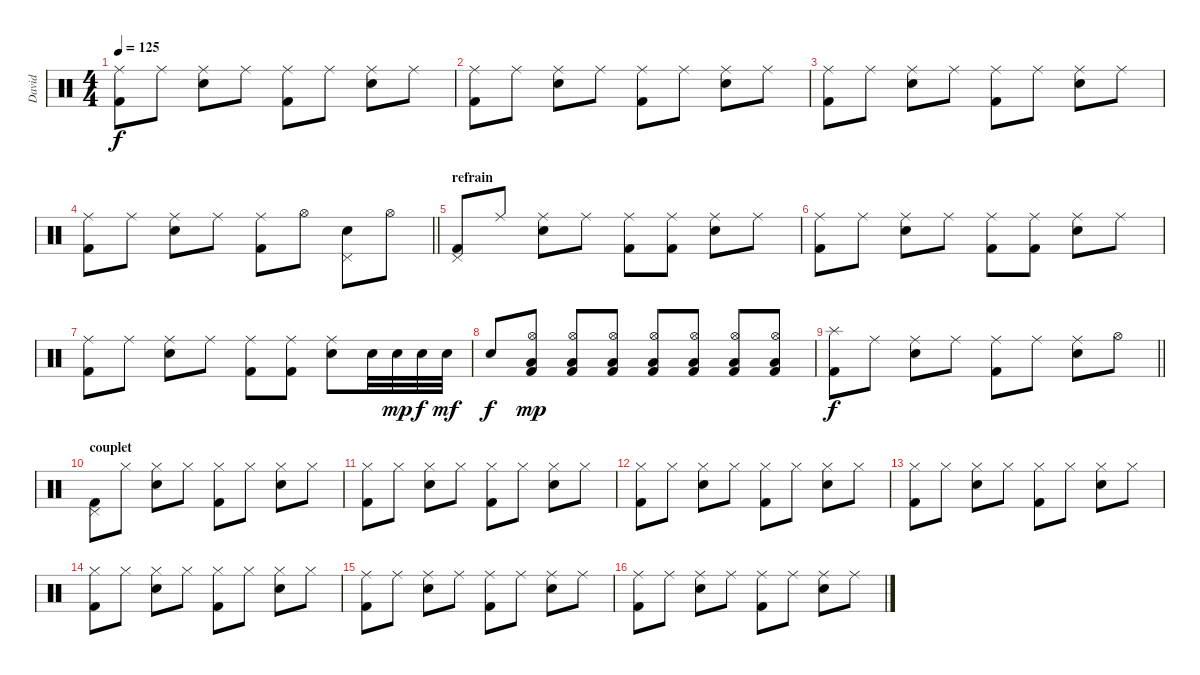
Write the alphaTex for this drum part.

\track ("David" "David") {instrument percussion}
\staff {score}
\articulation defaults
\ts (4 4)
\tempo 125
\clef neutral
\ks c
("Ride (middle)" "Kick (hit) 2").8{dy f} "Ride (middle)".8 ("Ride (middle)" "Electric Snare (hit)").8 "Ride (middle)".8 ("Ride (middle)" "Kick (hit) 2").8 "Ride (middle)".8 ("Ride (middle)" "Electric Snare (hit)").8 "Ride (middle)".8 |
("Ride (middle)" "Kick (hit) 2").8 "Ride (middle)".8 ("Ride (middle)" "Electric Snare (hit)").8 "Ride (middle)".8 ("Ride (middle)" "Kick (hit) 2").8 "Ride (middle)".8 ("Ride (middle)" "Electric Snare (hit)").8 "Ride (middle)".8 |
("Ride (middle)" "Kick (hit) 2").8 "Ride (middle)".8 ("Ride (middle)" "Electric Snare (hit)").8 "Ride (middle)".8 ("Ride (middle)" "Kick (hit) 2").8 "Ride (middle)".8 ("Ride (middle)" "Electric Snare (hit)").8 "Ride (middle)".8 |
\barLineRight lightlight
("Ride (middle)" "Kick (hit) 2").8 "Ride (middle)".8 ("Ride (middle)" "Electric Snare (hit)").8 "Ride (middle)".8 ("Ride (middle)" "Kick (hit) 2").8 "Hi-Hat (open)".8 ("Pedal Hi-Hat (hit)" "Electric Snare (hit)").8 "Hi-Hat (open)".8 |
\section ("" "refrain")
("Pedal Hi-Hat (hit)" "Kick (hit) 2").8 "Ride (middle)".8 ("Ride (middle)" "Electric Snare (hit)").8 "Ride (middle)".8 ("Ride (middle)" "Kick (hit) 2").8 ("Ride (middle)" "Kick (hit) 2").8 ("Ride (middle)" "Electric Snare (hit)").8 "Ride (middle)".8 |
("Ride (middle)" "Kick (hit) 2").8 "Ride (middle)".8 ("Ride (middle)" "Electric Snare (hit)").8 "Ride (middle)".8 ("Ride (middle)" "Kick (hit) 2").8 ("Ride (middle)" "Kick (hit) 2").8 ("Ride (middle)" "Electric Snare (hit)").8 "Ride (middle)".8 |
("Ride (middle)" "Kick (hit) 2").8 "Ride (middle)".8 ("Ride (middle)" "Electric Snare (hit)").8 "Ride (middle)".8 ("Ride (middle)" "Kick (hit) 2").8 ("Ride (middle)" "Kick (hit) 2").8 ("Ride (middle)" "Electric Snare (hit)").8 "Electric Snare (hit)".32 "Electric Snare (hit)".32{dy mp} "Electric Snare (hit)".32{dy f} "Electric Snare (hit)".32{dy mf} |
"Electric Snare (hit)".8{dy f} ("Hi-Hat (open)" "Low Floor Tom (hit)" "Kick (hit) 2").8{dy mp} ("Hi-Hat (open)" "Low Floor Tom (hit)" "Kick (hit) 2").8 ("Hi-Hat (open)" "Low Floor Tom (hit)" "Kick (hit) 2").8 ("Hi-Hat (open)" "Low Floor Tom (hit)" "Kick (hit) 2").8 ("Hi-Hat (open)" "Low Floor Tom (hit)" "Kick (hit) 2").8 ("Hi-Hat (open)" "Low Floor Tom (hit)" "Kick (hit) 2").8 ("Hi-Hat (open)" "Low Floor Tom (hit)" "Kick (hit) 2").8 |
\barLineRight lightlight
("Splash (hit)" "Kick (hit) 2").8{dy f} "Ride (middle)".8 ("Ride (middle)" "Electric Snare (hit)").8 "Ride (middle)".8 ("Ride (middle)" "Kick (hit) 2").8 "Ride (middle)".8 ("Ride (middle)" "Electric Snare (hit)").8 "Hi-Hat (open)".8 |
\section ("" "couplet")
("Pedal Hi-Hat (hit)" "Kick (hit) 2").8 "Hi-Hat (closed)".8 ("Hi-Hat (closed)" "Electric Snare (hit)").8 "Hi-Hat (closed)".8 ("Hi-Hat (closed)" "Kick (hit) 2").8 "Hi-Hat (closed)".8 ("Hi-Hat (closed)" "Electric Snare (hit)").8 "Hi-Hat (closed)".8 |
("Hi-Hat (closed)" "Kick (hit) 2").8 "Hi-Hat (closed)".8 ("Hi-Hat (closed)" "Electric Snare (hit)").8 "Hi-Hat (closed)".8 ("Hi-Hat (closed)" "Kick (hit) 2").8 "Hi-Hat (closed)".8 ("Hi-Hat (closed)" "Electric Snare (hit)").8 "Hi-Hat (closed)".8 |
("Hi-Hat (closed)" "Kick (hit) 2").8 "Hi-Hat (closed)".8 ("Hi-Hat (closed)" "Electric Snare (hit)").8 "Hi-Hat (closed)".8 ("Hi-Hat (closed)" "Kick (hit) 2").8 "Hi-Hat (closed)".8 ("Hi-Hat (closed)" "Electric Snare (hit)").8 "Hi-Hat (closed)".8 |
("Hi-Hat (closed)" "Kick (hit) 2").8 "Hi-Hat (closed)".8 ("Hi-Hat (closed)" "Electric Snare (hit)").8 "Hi-Hat (closed)".8 ("Hi-Hat (closed)" "Kick (hit) 2").8 "Hi-Hat (closed)".8 ("Hi-Hat (closed)" "Electric Snare (hit)").8 "Hi-Hat (closed)".8 |
("Hi-Hat (closed)" "Kick (hit) 2").8 "Hi-Hat (closed)".8 ("Hi-Hat (closed)" "Electric Snare (hit)").8 "Hi-Hat (closed)".8 ("Hi-Hat (closed)" "Kick (hit) 2").8 "Hi-Hat (closed)".8 ("Hi-Hat (closed)" "Electric Snare (hit)").8 "Hi-Hat (closed)".8 |
("Ride (middle)" "Kick (hit) 2").8 "Ride (middle)".8 ("Ride (middle)" "Electric Snare (hit)").8 "Ride (middle)".8 ("Ride (middle)" "Kick (hit) 2").8 "Ride (middle)".8 ("Ride (middle)" "Electric Snare (hit)").8 "Ride (middle)".8 |
("Ride (middle)" "Kick (hit) 2").8 "Ride (middle)".8 ("Ride (middle)" "Electric Snare (hit)").8 "Ride (middle)".8 ("Ride (middle)" "Kick (hit) 2").8 "Ride (middle)".8 ("Ride (middle)" "Electric Snare (hit)").8 "Ride (middle)".8
